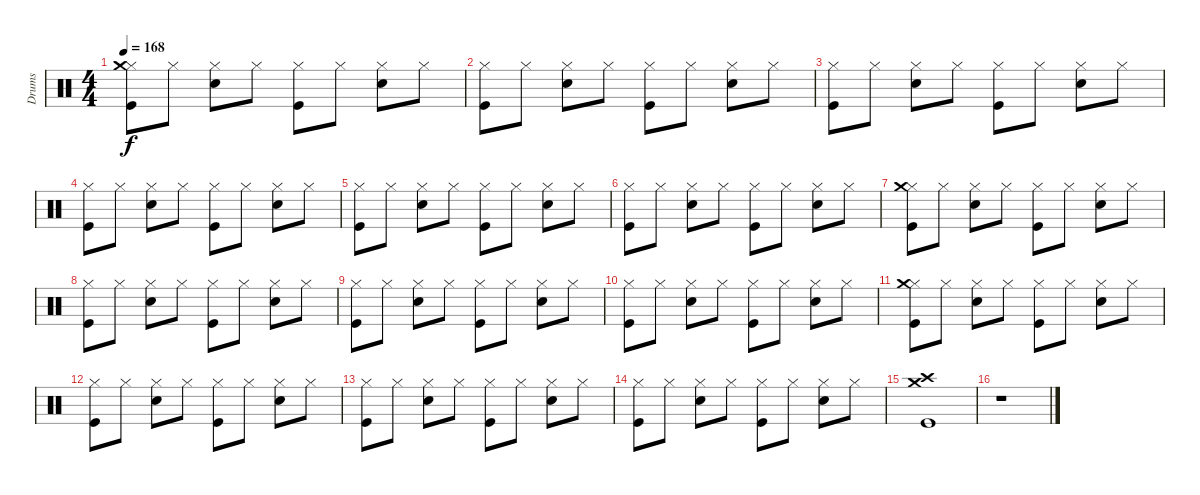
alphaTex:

\track ("Drums" "Drums") {instrument percussion}
\staff {score}
\articulation defaults
\ts (4 4)
\tempo 168
\clef neutral
\ks c
("Kick (hit)" "Hi-Hat (closed)" "Crash medium (hit)").8{dy f} "Hi-Hat (closed)".8 ("Snare (hit) 2" "Hi-Hat (closed)").8 "Hi-Hat (closed)".8 ("Kick (hit)" "Hi-Hat (closed)").8 "Hi-Hat (closed)".8 ("Snare (hit) 2" "Hi-Hat (closed)").8 "Hi-Hat (closed)".8 |
("Kick (hit)" "Hi-Hat (closed)").8 "Hi-Hat (closed)".8 ("Snare (hit) 2" "Hi-Hat (closed)").8 "Hi-Hat (closed)".8 ("Kick (hit)" "Hi-Hat (closed)").8 "Hi-Hat (closed)".8 ("Snare (hit) 2" "Hi-Hat (closed)").8 "Hi-Hat (closed)".8 |
("Kick (hit)" "Hi-Hat (closed)").8 "Hi-Hat (closed)".8 ("Snare (hit) 2" "Hi-Hat (closed)").8 "Hi-Hat (closed)".8 ("Kick (hit)" "Hi-Hat (closed)").8 "Hi-Hat (closed)".8 ("Snare (hit) 2" "Hi-Hat (closed)").8 "Hi-Hat (closed)".8 |
("Kick (hit)" "Hi-Hat (closed)").8 "Hi-Hat (closed)".8 ("Snare (hit) 2" "Hi-Hat (closed)").8 "Hi-Hat (closed)".8 ("Kick (hit)" "Hi-Hat (closed)").8 "Hi-Hat (closed)".8 ("Snare (hit) 2" "Hi-Hat (closed)").8 "Hi-Hat (closed)".8 |
("Kick (hit)" "Hi-Hat (closed)").8 "Hi-Hat (closed)".8 ("Snare (hit) 2" "Hi-Hat (closed)").8 "Hi-Hat (closed)".8 ("Kick (hit)" "Hi-Hat (closed)").8 "Hi-Hat (closed)".8 ("Snare (hit) 2" "Hi-Hat (closed)").8 "Hi-Hat (closed)".8 |
("Kick (hit)" "Hi-Hat (closed)").8 "Hi-Hat (closed)".8 ("Snare (hit) 2" "Hi-Hat (closed)").8 "Hi-Hat (closed)".8 ("Kick (hit)" "Hi-Hat (closed)").8 "Hi-Hat (closed)".8 ("Snare (hit) 2" "Hi-Hat (closed)").8 "Hi-Hat (closed)".8 |
("Kick (hit)" "Hi-Hat (closed)" "Crash medium (hit)").8 "Hi-Hat (closed)".8 ("Snare (hit) 2" "Hi-Hat (closed)").8 "Hi-Hat (closed)".8 ("Kick (hit)" "Hi-Hat (closed)").8 "Hi-Hat (closed)".8 ("Snare (hit) 2" "Hi-Hat (closed)").8 "Hi-Hat (closed)".8 |
("Kick (hit)" "Hi-Hat (closed)").8 "Hi-Hat (closed)".8 ("Snare (hit) 2" "Hi-Hat (closed)").8 "Hi-Hat (closed)".8 ("Kick (hit)" "Hi-Hat (closed)").8 "Hi-Hat (closed)".8 ("Snare (hit) 2" "Hi-Hat (closed)").8 "Hi-Hat (closed)".8 |
("Kick (hit)" "Hi-Hat (closed)").8 "Hi-Hat (closed)".8 ("Snare (hit) 2" "Hi-Hat (closed)").8 "Hi-Hat (closed)".8 ("Kick (hit)" "Hi-Hat (closed)").8 "Hi-Hat (closed)".8 ("Snare (hit) 2" "Hi-Hat (closed)").8 "Hi-Hat (closed)".8 |
("Kick (hit)" "Hi-Hat (closed)").8 "Hi-Hat (closed)".8 ("Snare (hit) 2" "Hi-Hat (closed)").8 "Hi-Hat (closed)".8 ("Kick (hit)" "Hi-Hat (closed)").8 "Hi-Hat (closed)".8 ("Snare (hit) 2" "Hi-Hat (closed)").8 "Hi-Hat (closed)".8 |
("Kick (hit)" "Hi-Hat (closed)" "Crash medium (hit)").8 "Hi-Hat (closed)".8 ("Snare (hit) 2" "Hi-Hat (closed)").8 "Hi-Hat (closed)".8 ("Kick (hit)" "Hi-Hat (closed)").8 "Hi-Hat (closed)".8 ("Snare (hit) 2" "Hi-Hat (closed)").8 "Hi-Hat (closed)".8 |
("Kick (hit)" "Hi-Hat (closed)").8 "Hi-Hat (closed)".8 ("Snare (hit) 2" "Hi-Hat (closed)").8 "Hi-Hat (closed)".8 ("Kick (hit)" "Hi-Hat (closed)").8 "Hi-Hat (closed)".8 ("Snare (hit) 2" "Hi-Hat (closed)").8 "Hi-Hat (closed)".8 |
("Kick (hit)" "Hi-Hat (closed)").8 "Hi-Hat (closed)".8 ("Snare (hit) 2" "Hi-Hat (closed)").8 "Hi-Hat (closed)".8 ("Kick (hit)" "Hi-Hat (closed)").8 "Hi-Hat (closed)".8 ("Snare (hit) 2" "Hi-Hat (closed)").8 "Hi-Hat (closed)".8 |
("Kick (hit)" "Hi-Hat (closed)").8 "Hi-Hat (closed)".8 ("Snare (hit) 2" "Hi-Hat (closed)").8 "Hi-Hat (closed)".8 ("Kick (hit)" "Hi-Hat (closed)").8 "Hi-Hat (closed)".8 ("Snare (hit) 2" "Hi-Hat (closed)").8 "Hi-Hat (closed)".8 |
("Kick (hit)" "Crash medium (hit)" "Crash high (hit)").1 |
r.1
